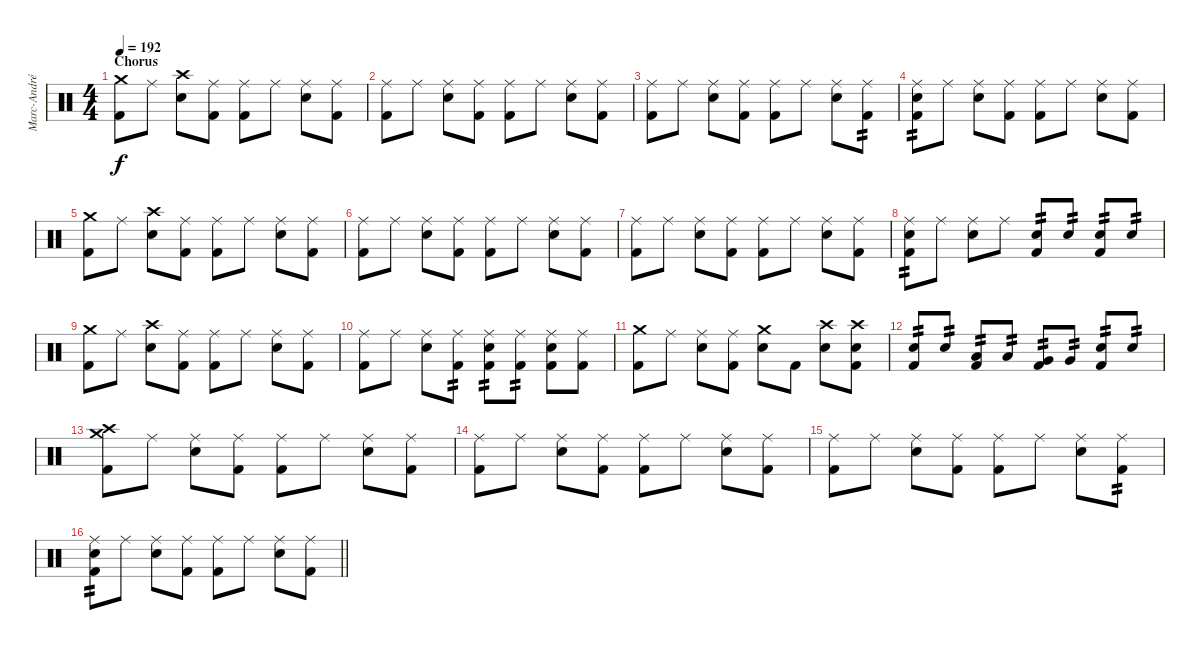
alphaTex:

\track ("Marc-André Barabé" "Marc-André") {instrument percussion}
\staff {score}
\articulation defaults
\ts (4 4)
\section ("" "Chorus")
\tempo 192
\clef neutral
\ks c
("Crash medium (hit)" "Kick (hit) 2").8{dy f} "Ride (middle)".8 ("Crash high (hit)" "Electric Snare (hit)").8 ("Ride (middle)" "Kick (hit) 2").8 ("Ride (middle)" "Kick (hit) 2").8 "Ride (middle)".8 ("Ride (middle)" "Electric Snare (hit)").8 ("Ride (middle)" "Kick (hit) 2").8 |
("Ride (middle)" "Kick (hit) 2").8 "Ride (middle)".8 ("Ride (middle)" "Electric Snare (hit)").8 ("Ride (middle)" "Kick (hit) 2").8 ("Ride (middle)" "Kick (hit) 2").8 "Ride (middle)".8 ("Ride (middle)" "Electric Snare (hit)").8 ("Ride (middle)" "Kick (hit) 2").8 |
("Ride (middle)" "Kick (hit) 2").8 "Ride (middle)".8 ("Ride (middle)" "Electric Snare (hit)").8 ("Ride (middle)" "Kick (hit) 2").8 ("Ride (middle)" "Kick (hit) 2").8 "Ride (middle)".8 ("Ride (middle)" "Electric Snare (hit)").8 ("Ride (middle)" "Kick (hit) 2").8{tp 2} |
("Ride (middle)" "Electric Snare (hit)" "Kick (hit) 2").8{tp 2} "Ride (middle)".8 ("Ride (middle)" "Electric Snare (hit)").8 ("Ride (middle)" "Kick (hit) 2").8 ("Ride (middle)" "Kick (hit) 2").8 "Ride (middle)".8 ("Ride (middle)" "Electric Snare (hit)").8 ("Ride (middle)" "Kick (hit) 2").8 |
("Crash medium (hit)" "Kick (hit) 2").8 "Ride (middle)".8 ("Crash high (hit)" "Electric Snare (hit)").8 ("Ride (middle)" "Kick (hit) 2").8 ("Ride (middle)" "Kick (hit) 2").8 "Ride (middle)".8 ("Ride (middle)" "Electric Snare (hit)").8 ("Ride (middle)" "Kick (hit) 2").8 |
("Ride (middle)" "Kick (hit) 2").8 "Ride (middle)".8 ("Ride (middle)" "Electric Snare (hit)").8 ("Ride (middle)" "Kick (hit) 2").8 ("Ride (middle)" "Kick (hit) 2").8 "Ride (middle)".8 ("Ride (middle)" "Electric Snare (hit)").8 ("Ride (middle)" "Kick (hit) 2").8 |
("Ride (middle)" "Kick (hit) 2").8 "Ride (middle)".8 ("Ride (middle)" "Electric Snare (hit)").8 ("Ride (middle)" "Kick (hit) 2").8 ("Ride (middle)" "Kick (hit) 2").8 "Ride (middle)".8 ("Ride (middle)" "Electric Snare (hit)").8 ("Ride (middle)" "Kick (hit) 2").8 |
("Ride (middle)" "Electric Snare (hit)" "Kick (hit) 2").8{tp 2} "Ride (middle)".8 ("Ride (middle)" "Electric Snare (hit)").8 "Ride (middle)".8 ("Electric Snare (hit)" "Kick (hit) 2").8{tp 2} "Electric Snare (hit)".8{tp 2} ("Electric Snare (hit)" "Kick (hit) 2").8{tp 2} "Electric Snare (hit)".8{tp 2} |
("Crash medium (hit)" "Kick (hit) 2").8 "Ride (middle)".8 ("Crash high (hit)" "Electric Snare (hit)").8 ("Ride (middle)" "Kick (hit) 2").8 ("Ride (middle)" "Kick (hit) 2").8 "Ride (middle)".8 ("Ride (middle)" "Electric Snare (hit)").8 ("Ride (middle)" "Kick (hit) 2").8 |
("Ride (middle)" "Kick (hit) 2").8 "Ride (middle)".8 ("Ride (middle)" "Electric Snare (hit)").8 ("Ride (middle)" "Kick (hit) 2").8{tp 2} ("Ride (middle)" "Electric Snare (hit)" "Kick (hit) 2").8{tp 2} ("Ride (middle)" "Kick (hit) 2").8{tp 2} ("Ride (middle)" "Electric Snare (hit)" "Kick (hit) 2").8 ("Ride (middle)" "Kick (hit) 2").8 |
("Crash medium (hit)" "Kick (hit) 2").8 "Ride (middle)".8 ("Ride (middle)" "Electric Snare (hit)").8 ("Ride (middle)" "Kick (hit) 2").8 ("Crash medium (hit)" "Electric Snare (hit)").8 "Kick (hit) 2".8 ("Crash high (hit)" "Electric Snare (hit)").8 ("Crash high (hit)" "Electric Snare (hit)" "Kick (hit) 2").8 |
("Electric Snare (hit)" "Kick (hit) 2").8{tp 2} "Electric Snare (hit)".8{tp 2} ("Low Tom (hit)" "Kick (hit) 2").8{tp 2} "Low Tom (hit)".8{tp 2} ("Very Low Tom (hit)" "Kick (hit) 2").8{tp 2} "Very Low Tom (hit)".8{tp 2} ("Electric Snare (hit)" "Kick (hit) 2").8{tp 2} "Electric Snare (hit)".8{tp 2} |
("Crash high (hit)" "Crash medium (hit)" "Kick (hit) 2").8 "Ride (middle)".8 ("Ride (middle)" "Electric Snare (hit)").8 ("Ride (middle)" "Kick (hit) 2").8 ("Ride (middle)" "Kick (hit) 2").8 "Ride (middle)".8 ("Ride (middle)" "Electric Snare (hit)").8 ("Ride (middle)" "Kick (hit) 2").8 |
("Ride (middle)" "Kick (hit) 2").8 "Ride (middle)".8 ("Ride (middle)" "Electric Snare (hit)").8 ("Ride (middle)" "Kick (hit) 2").8 ("Ride (middle)" "Kick (hit) 2").8 "Ride (middle)".8 ("Ride (middle)" "Electric Snare (hit)").8 ("Ride (middle)" "Kick (hit) 2").8 |
("Ride (middle)" "Kick (hit) 2").8 "Ride (middle)".8 ("Ride (middle)" "Electric Snare (hit)").8 ("Ride (middle)" "Kick (hit) 2").8 ("Ride (middle)" "Kick (hit) 2").8 "Ride (middle)".8 ("Ride (middle)" "Electric Snare (hit)").8 ("Ride (middle)" "Kick (hit) 2").8{tp 2} |
\barLineRight lightlight
("Ride (middle)" "Electric Snare (hit)" "Kick (hit) 2").8{tp 2} "Ride (middle)".8 ("Ride (middle)" "Electric Snare (hit)").8 ("Ride (middle)" "Kick (hit) 2").8 ("Ride (middle)" "Kick (hit) 2").8 "Ride (middle)".8 ("Ride (middle)" "Electric Snare (hit)").8 ("Ride (middle)" "Kick (hit) 2").8
